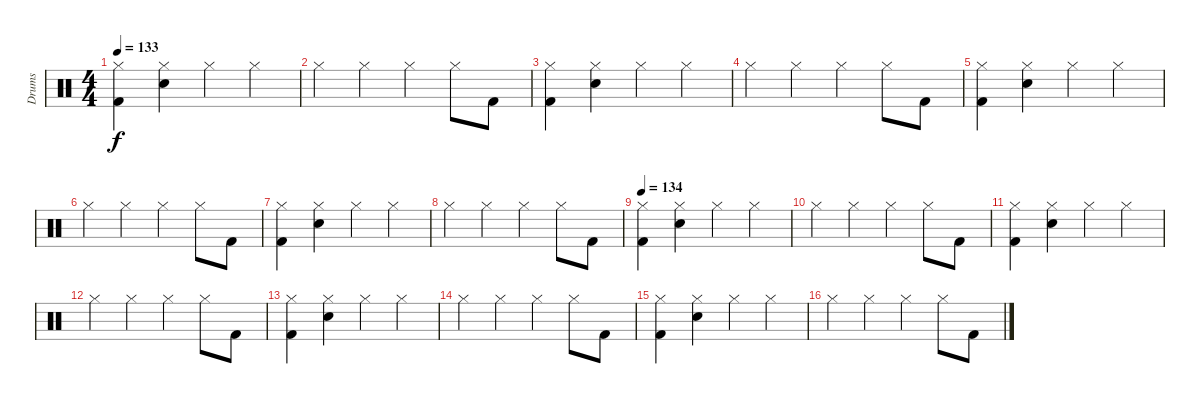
\track ("Drums" "Drums") {instrument percussion}
\staff {score}
\articulation defaults
\ts (4 4)
\tempo 133
\clef neutral
\ks c
("Hi-Hat (closed)" "Kick (hit) 2").4{dy f} ("Hi-Hat (closed)" "Snare (hit) 2").4 "Hi-Hat (closed)".4 "Hi-Hat (closed)".4 |
"Hi-Hat (closed)".4 "Hi-Hat (closed)".4 "Hi-Hat (closed)".4 "Hi-Hat (closed)".8 "Kick (hit) 2".8 |
("Hi-Hat (closed)" "Kick (hit) 2").4 ("Hi-Hat (closed)" "Snare (hit) 2").4 "Hi-Hat (closed)".4 "Hi-Hat (closed)".4 |
"Hi-Hat (closed)".4 "Hi-Hat (closed)".4 "Hi-Hat (closed)".4 "Hi-Hat (closed)".8 "Kick (hit) 2".8 |
("Hi-Hat (closed)" "Kick (hit) 2").4 ("Hi-Hat (closed)" "Snare (hit) 2").4 "Hi-Hat (closed)".4 "Hi-Hat (closed)".4 |
"Hi-Hat (closed)".4 "Hi-Hat (closed)".4 "Hi-Hat (closed)".4 "Hi-Hat (closed)".8 "Kick (hit) 2".8 |
("Hi-Hat (closed)" "Kick (hit) 2").4 ("Hi-Hat (closed)" "Snare (hit) 2").4 "Hi-Hat (closed)".4 "Hi-Hat (closed)".4 |
"Hi-Hat (closed)".4 "Hi-Hat (closed)".4 "Hi-Hat (closed)".4 "Hi-Hat (closed)".8 "Kick (hit) 2".8 |
\tempo 134
("Hi-Hat (closed)" "Kick (hit) 2").4 ("Hi-Hat (closed)" "Snare (hit) 2").4 "Hi-Hat (closed)".4 "Hi-Hat (closed)".4 |
"Hi-Hat (closed)".4 "Hi-Hat (closed)".4 "Hi-Hat (closed)".4 "Hi-Hat (closed)".8 "Kick (hit) 2".8 |
("Hi-Hat (closed)" "Kick (hit) 2").4 ("Hi-Hat (closed)" "Snare (hit) 2").4 "Hi-Hat (closed)".4 "Hi-Hat (closed)".4 |
"Hi-Hat (closed)".4 "Hi-Hat (closed)".4 "Hi-Hat (closed)".4 "Hi-Hat (closed)".8 "Kick (hit) 2".8 |
("Hi-Hat (closed)" "Kick (hit) 2").4 ("Hi-Hat (closed)" "Snare (hit) 2").4 "Hi-Hat (closed)".4 "Hi-Hat (closed)".4 |
"Hi-Hat (closed)".4 "Hi-Hat (closed)".4 "Hi-Hat (closed)".4 "Hi-Hat (closed)".8 "Kick (hit) 2".8 |
("Hi-Hat (closed)" "Kick (hit) 2").4 ("Hi-Hat (closed)" "Snare (hit) 2").4 "Hi-Hat (closed)".4 "Hi-Hat (closed)".4 |
"Hi-Hat (closed)".4 "Hi-Hat (closed)".4 "Hi-Hat (closed)".4 "Hi-Hat (closed)".8 "Kick (hit) 2".8
